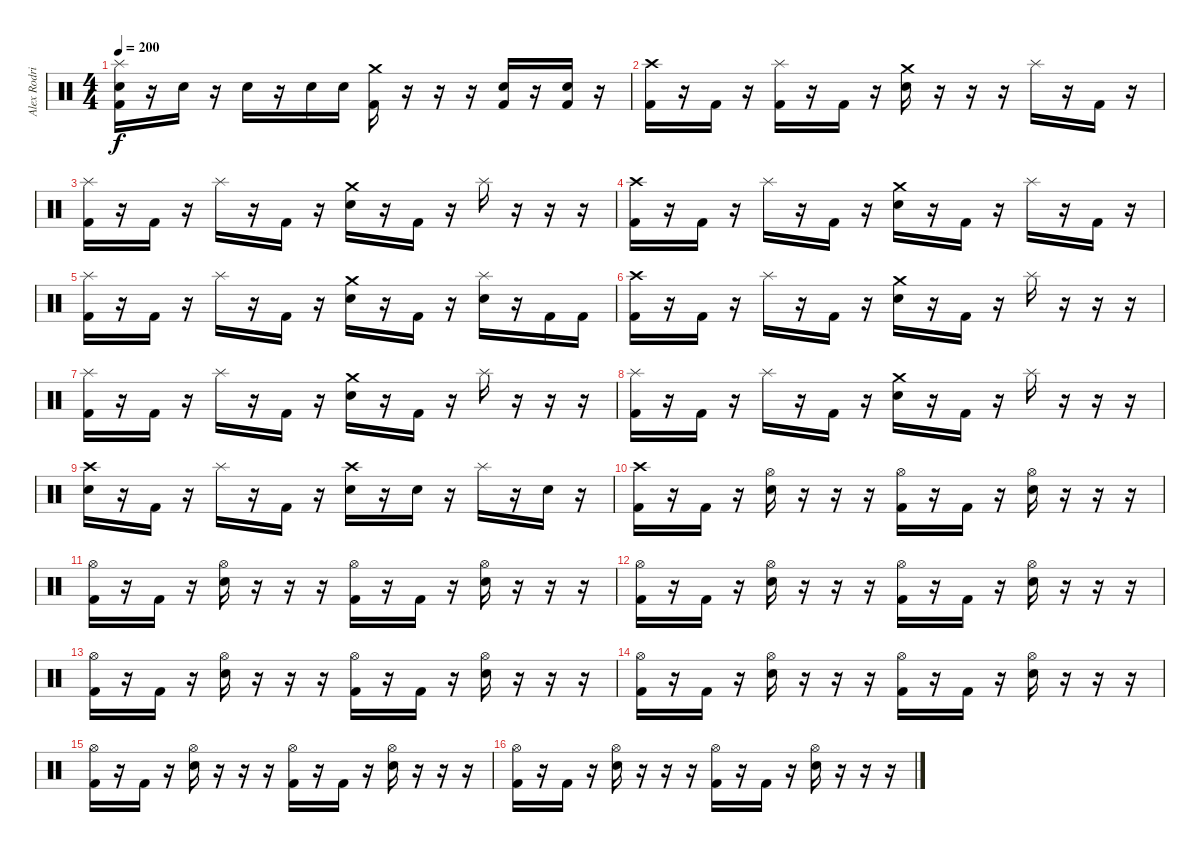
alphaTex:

\track ("Alex Rodriguez" "Alex Rodri") {instrument percussion}
\staff {score}
\articulation defaults
\ts (4 4)
\tempo 200
\clef neutral
\ks c
("Splash (hit)" "Electric Snare (hit)" "Kick (hit) 2").16{dy f} r.16 "Electric Snare (hit)".16 r.16 "Electric Snare (hit)".16 r.16 "Electric Snare (hit)".16 "Electric Snare (hit)".16 ("Crash medium (hit)" "Kick (hit) 2").16 r.16 r.16 r.16 ("Electric Snare (hit)" "Kick (hit) 2").16 r.16 ("Electric Snare (hit)" "Kick (hit) 2").16 r.16 |
("Crash high (hit)" "Kick (hit) 2").16 r.16 "Kick (hit) 2".16 r.16 ("Splash (hit)" "Kick (hit) 2").16 r.16 "Kick (hit) 2".16 r.16 ("Crash medium (hit)" "Electric Snare (hit)").16 r.16 r.16 r.16 "Splash (hit)".16 r.16 "Kick (hit) 2".16 r.16 |
("Splash (hit)" "Kick (hit) 2").16 r.16 "Kick (hit) 2".16 r.16 "Splash (hit)".16 r.16 "Kick (hit) 2".16 r.16 ("Crash medium (hit)" "Electric Snare (hit)").16 r.16 "Kick (hit) 2".16 r.16 "Splash (hit)".16 r.16 r.16 r.16 |
("Crash high (hit)" "Kick (hit) 2").16 r.16 "Kick (hit) 2".16 r.16 "Splash (hit)".16 r.16 "Kick (hit) 2".16 r.16 ("Crash medium (hit)" "Electric Snare (hit)").16 r.16 "Kick (hit) 2".16 r.16 "Splash (hit)".16 r.16 "Kick (hit) 2".16 r.16 |
("Splash (hit)" "Kick (hit) 2").16 r.16 "Kick (hit) 2".16 r.16 "Splash (hit)".16 r.16 "Kick (hit) 2".16 r.16 ("Crash medium (hit)" "Electric Snare (hit)").16 r.16 "Kick (hit) 2".16 r.16 ("Splash (hit)" "Electric Snare (hit)").16 r.16 "Kick (hit) 2".16 "Kick (hit) 2".16 |
("Crash high (hit)" "Kick (hit) 2").16 r.16 "Kick (hit) 2".16 r.16 "Splash (hit)".16 r.16 "Kick (hit) 2".16 r.16 ("Crash medium (hit)" "Electric Snare (hit)").16 r.16 "Kick (hit) 2".16 r.16 "Splash (hit)".16 r.16 r.16 r.16 |
("Splash (hit)" "Kick (hit) 2").16 r.16 "Kick (hit) 2".16 r.16 "Splash (hit)".16 r.16 "Kick (hit) 2".16 r.16 ("Crash medium (hit)" "Electric Snare (hit)").16 r.16 "Kick (hit) 2".16 r.16 "Splash (hit)".16 r.16 r.16 r.16 |
("Splash (hit)" "Kick (hit) 2").16 r.16 "Kick (hit) 2".16 r.16 "Splash (hit)".16 r.16 "Kick (hit) 2".16 r.16 ("Crash medium (hit)" "Electric Snare (hit)").16 r.16 "Kick (hit) 2".16 r.16 "Splash (hit)".16 r.16 r.16 r.16 |
("Crash high (hit)" "Electric Snare (hit)").16 r.16 "Kick (hit) 2".16 r.16 "Splash (hit)".16 r.16 "Kick (hit) 2".16 r.16 ("Crash high (hit)" "Electric Snare (hit)").16 r.16 "Electric Snare (hit)".16 r.16 "Splash (hit)".16 r.16 "Electric Snare (hit)".16 r.16 |
("Crash high (hit)" "Kick (hit) 2").16 r.16 "Kick (hit) 2".16 r.16 ("Hi-Hat (open)" "Electric Snare (hit)").16 r.16 r.16 r.16 ("Hi-Hat (open)" "Kick (hit) 2").16 r.16 "Kick (hit) 2".16 r.16 ("Hi-Hat (open)" "Electric Snare (hit)").16 r.16 r.16 r.16 |
("Hi-Hat (open)" "Kick (hit) 2").16 r.16 "Kick (hit) 2".16 r.16 ("Hi-Hat (open)" "Electric Snare (hit)").16 r.16 r.16 r.16 ("Hi-Hat (open)" "Kick (hit) 2").16 r.16 "Kick (hit) 2".16 r.16 ("Hi-Hat (open)" "Electric Snare (hit)").16 r.16 r.16 r.16 |
("Hi-Hat (open)" "Kick (hit) 2").16 r.16 "Kick (hit) 2".16 r.16 ("Hi-Hat (open)" "Electric Snare (hit)").16 r.16 r.16 r.16 ("Hi-Hat (open)" "Kick (hit) 2").16 r.16 "Kick (hit) 2".16 r.16 ("Hi-Hat (open)" "Electric Snare (hit)").16 r.16 r.16 r.16 |
("Hi-Hat (open)" "Kick (hit) 2").16 r.16 "Kick (hit) 2".16 r.16 ("Hi-Hat (open)" "Electric Snare (hit)").16 r.16 r.16 r.16 ("Hi-Hat (open)" "Kick (hit) 2").16 r.16 "Kick (hit) 2".16 r.16 ("Hi-Hat (open)" "Electric Snare (hit)").16 r.16 r.16 r.16 |
("Hi-Hat (open)" "Kick (hit) 2").16 r.16 "Kick (hit) 2".16 r.16 ("Hi-Hat (open)" "Electric Snare (hit)").16 r.16 r.16 r.16 ("Hi-Hat (open)" "Kick (hit) 2").16 r.16 "Kick (hit) 2".16 r.16 ("Hi-Hat (open)" "Electric Snare (hit)").16 r.16 r.16 r.16 |
("Hi-Hat (open)" "Kick (hit) 2").16 r.16 "Kick (hit) 2".16 r.16 ("Hi-Hat (open)" "Electric Snare (hit)").16 r.16 r.16 r.16 ("Hi-Hat (open)" "Kick (hit) 2").16 r.16 "Kick (hit) 2".16 r.16 ("Hi-Hat (open)" "Electric Snare (hit)").16 r.16 r.16 r.16 |
("Hi-Hat (open)" "Kick (hit) 2").16 r.16 "Kick (hit) 2".16 r.16 ("Hi-Hat (open)" "Electric Snare (hit)").16 r.16 r.16 r.16 ("Hi-Hat (open)" "Kick (hit) 2").16 r.16 "Kick (hit) 2".16 r.16 ("Hi-Hat (open)" "Electric Snare (hit)").16 r.16 r.16 r.16
